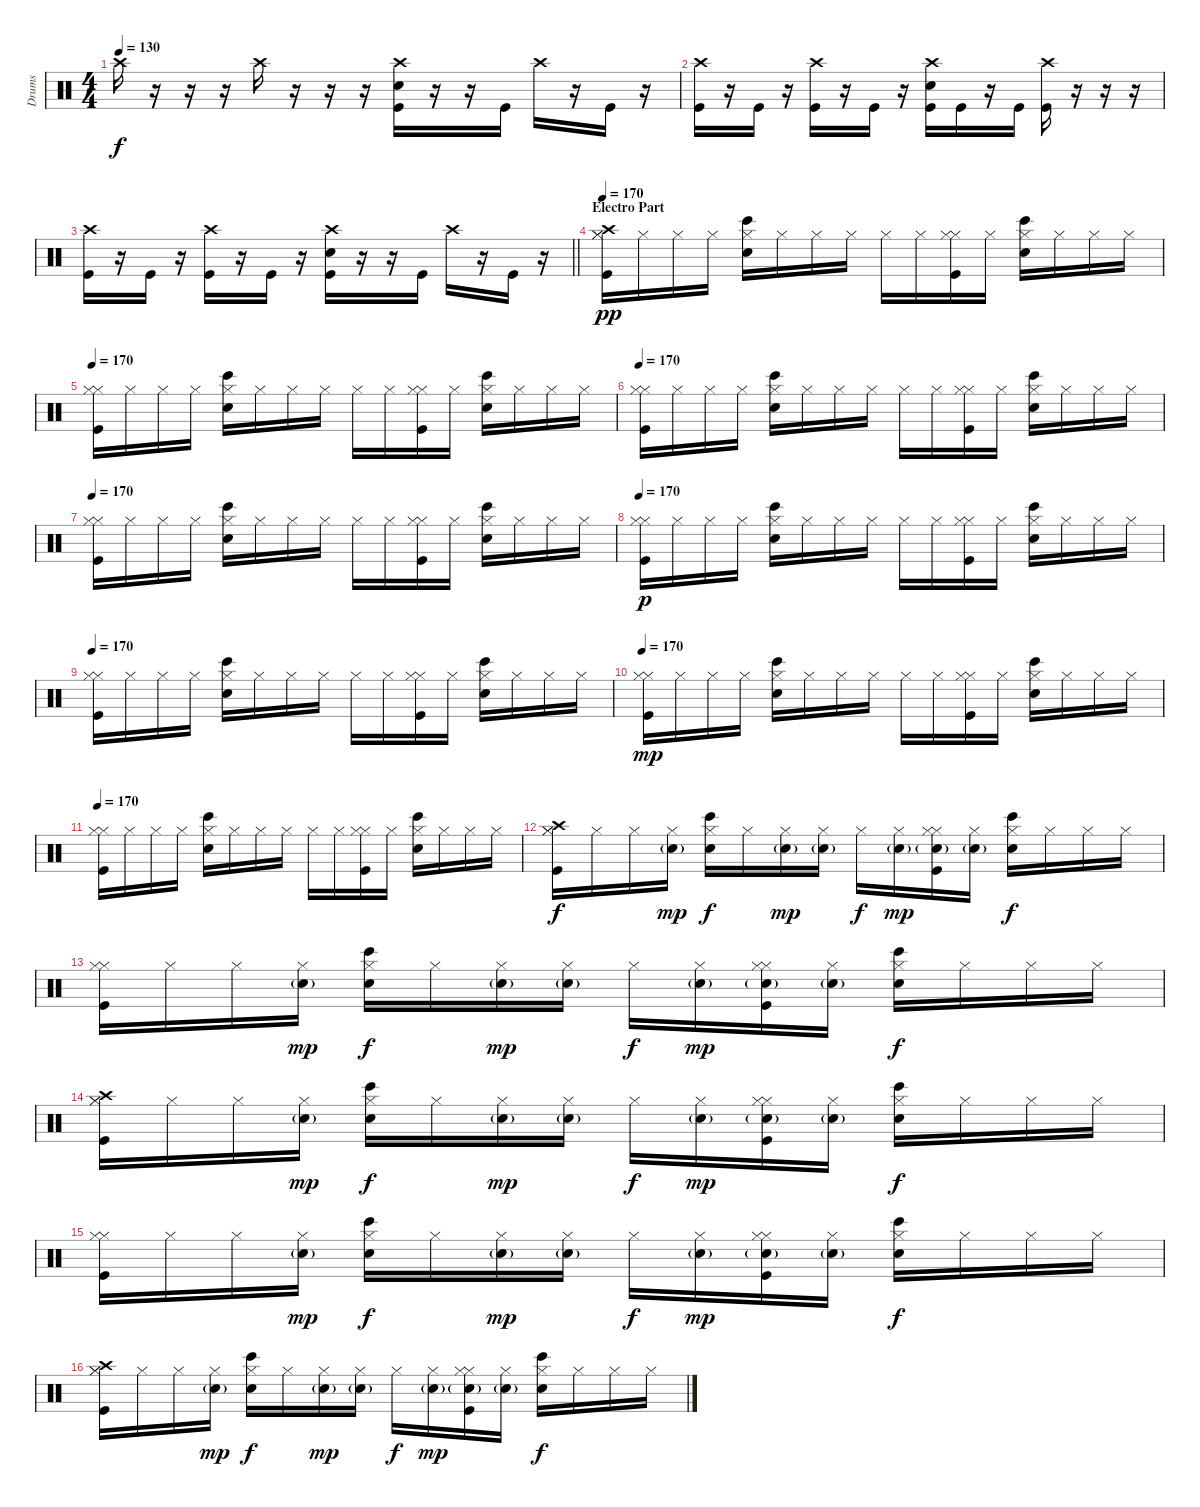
\track ("Drums" "Drums") {instrument percussion}
\staff {score}
\articulation defaults
\ts (4 4)
\tempo 130
\clef neutral
\ks c "Crash high (hit)".16{dy f}
r.16 r.16 r.16 "Crash high (hit)".16 r.16 r.16 r.16 ("Kick (hit)" "Snare (hit) 2" "Crash high (hit)").16 r.16 r.16 "Kick (hit)".16 "Crash high (hit)".16 r.16 "Kick (hit)".16 r.16 |
("Kick (hit)" "Crash high (hit)").16 r.16 "Kick (hit)".16 r.16 ("Kick (hit)" "Crash high (hit)").16 r.16 "Kick (hit)".16 r.16 ("Kick (hit)" "Snare (hit) 2" "Crash high (hit)").16 "Kick (hit)".16 r.16 "Kick (hit)".16 ("Kick (hit)" "Crash high (hit)").16 r.16 r.16 r.16 |
\barLineRight lightlight
("Kick (hit)" "Crash high (hit)").16 r.16 "Kick (hit)".16 r.16 ("Kick (hit)" "Crash high (hit)").16 r.16 "Kick (hit)".16 r.16 ("Kick (hit)" "Snare (hit) 2" "Crash high (hit)").16 r.16 r.16 "Kick (hit)".16 "Crash high (hit)".16 r.16 "Kick (hit)".16 r.16 |
\section ("" "Electro Part")
\tempo 170
("Hi-Hat (closed)" "Kick (hit)" "Hi-Hat (closed)" "Crash high (hit)").16{dy pp} "Hi-Hat (closed)".16 "Hi-Hat (closed)".16 "Hi-Hat (closed)".16 ("Bongo High (hit)" "Snare (hit) 2" "Hi-Hat (closed)").16 "Hi-Hat (closed)".16 "Hi-Hat (closed)".16 "Hi-Hat (closed)".16 "Hi-Hat (closed)".16 "Hi-Hat (closed)".16 ("Kick (hit)" "Hi-Hat (closed)" "Hi-Hat (closed)").16 "Hi-Hat (closed)".16 ("Bongo High (hit)" "Snare (hit) 2" "Hi-Hat (closed)").16 "Hi-Hat (closed)".16 "Hi-Hat (closed)".16 "Hi-Hat (closed)".16 |
\tempo 170
("Hi-Hat (closed)" "Kick (hit)" "Hi-Hat (closed)").16 "Hi-Hat (closed)".16 "Hi-Hat (closed)".16 "Hi-Hat (closed)".16 ("Bongo High (hit)" "Snare (hit) 2" "Hi-Hat (closed)").16 "Hi-Hat (closed)".16 "Hi-Hat (closed)".16 "Hi-Hat (closed)".16 "Hi-Hat (closed)".16 "Hi-Hat (closed)".16 ("Kick (hit)" "Hi-Hat (closed)" "Hi-Hat (closed)").16 "Hi-Hat (closed)".16 ("Bongo High (hit)" "Snare (hit) 2" "Hi-Hat (closed)").16 "Hi-Hat (closed)".16 "Hi-Hat (closed)".16 "Hi-Hat (closed)".16 |
\tempo 170
("Hi-Hat (closed)" "Kick (hit)" "Hi-Hat (closed)").16 "Hi-Hat (closed)".16 "Hi-Hat (closed)".16 "Hi-Hat (closed)".16 ("Bongo High (hit)" "Snare (hit) 2" "Hi-Hat (closed)").16 "Hi-Hat (closed)".16 "Hi-Hat (closed)".16 "Hi-Hat (closed)".16 "Hi-Hat (closed)".16 "Hi-Hat (closed)".16 ("Kick (hit)" "Hi-Hat (closed)" "Hi-Hat (closed)").16 "Hi-Hat (closed)".16 ("Bongo High (hit)" "Snare (hit) 2" "Hi-Hat (closed)").16 "Hi-Hat (closed)".16 "Hi-Hat (closed)".16 "Hi-Hat (closed)".16 |
\tempo 170
("Hi-Hat (closed)" "Kick (hit)" "Hi-Hat (closed)").16 "Hi-Hat (closed)".16 "Hi-Hat (closed)".16 "Hi-Hat (closed)".16 ("Bongo High (hit)" "Snare (hit) 2" "Hi-Hat (closed)").16 "Hi-Hat (closed)".16 "Hi-Hat (closed)".16 "Hi-Hat (closed)".16 "Hi-Hat (closed)".16 "Hi-Hat (closed)".16 ("Kick (hit)" "Hi-Hat (closed)" "Hi-Hat (closed)").16 "Hi-Hat (closed)".16 ("Bongo High (hit)" "Snare (hit) 2" "Hi-Hat (closed)").16 "Hi-Hat (closed)".16 "Hi-Hat (closed)".16 "Hi-Hat (closed)".16 |
\tempo 170
("Hi-Hat (closed)" "Kick (hit)" "Hi-Hat (closed)").16{dy p} "Hi-Hat (closed)".16 "Hi-Hat (closed)".16 "Hi-Hat (closed)".16 ("Bongo High (hit)" "Snare (hit) 2" "Hi-Hat (closed)").16 "Hi-Hat (closed)".16 "Hi-Hat (closed)".16 "Hi-Hat (closed)".16 "Hi-Hat (closed)".16 "Hi-Hat (closed)".16 ("Kick (hit)" "Hi-Hat (closed)" "Hi-Hat (closed)").16 "Hi-Hat (closed)".16 ("Bongo High (hit)" "Snare (hit) 2" "Hi-Hat (closed)").16 "Hi-Hat (closed)".16 "Hi-Hat (closed)".16 "Hi-Hat (closed)".16 |
\tempo 170
("Hi-Hat (closed)" "Kick (hit)" "Hi-Hat (closed)").16 "Hi-Hat (closed)".16 "Hi-Hat (closed)".16 "Hi-Hat (closed)".16 ("Bongo High (hit)" "Snare (hit) 2" "Hi-Hat (closed)").16 "Hi-Hat (closed)".16 "Hi-Hat (closed)".16 "Hi-Hat (closed)".16 "Hi-Hat (closed)".16 "Hi-Hat (closed)".16 ("Kick (hit)" "Hi-Hat (closed)" "Hi-Hat (closed)").16 "Hi-Hat (closed)".16 ("Bongo High (hit)" "Snare (hit) 2" "Hi-Hat (closed)").16 "Hi-Hat (closed)".16 "Hi-Hat (closed)".16 "Hi-Hat (closed)".16 |
\tempo 170
("Hi-Hat (closed)" "Kick (hit)" "Hi-Hat (closed)").16{dy mp} "Hi-Hat (closed)".16 "Hi-Hat (closed)".16 "Hi-Hat (closed)".16 ("Bongo High (hit)" "Snare (hit) 2" "Hi-Hat (closed)").16 "Hi-Hat (closed)".16 "Hi-Hat (closed)".16 "Hi-Hat (closed)".16 "Hi-Hat (closed)".16 "Hi-Hat (closed)".16 ("Kick (hit)" "Hi-Hat (closed)" "Hi-Hat (closed)").16 "Hi-Hat (closed)".16 ("Bongo High (hit)" "Snare (hit) 2" "Hi-Hat (closed)").16 "Hi-Hat (closed)".16 "Hi-Hat (closed)".16 "Hi-Hat (closed)".16 |
\tempo 170
("Hi-Hat (closed)" "Kick (hit)" "Hi-Hat (closed)").16 "Hi-Hat (closed)".16 "Hi-Hat (closed)".16 "Hi-Hat (closed)".16 ("Bongo High (hit)" "Snare (hit) 2" "Hi-Hat (closed)").16 "Hi-Hat (closed)".16 "Hi-Hat (closed)".16 "Hi-Hat (closed)".16 "Hi-Hat (closed)".16 "Hi-Hat (closed)".16 ("Kick (hit)" "Hi-Hat (closed)" "Hi-Hat (closed)").16 "Hi-Hat (closed)".16 ("Bongo High (hit)" "Snare (hit) 2" "Hi-Hat (closed)").16 "Hi-Hat (closed)".16 "Hi-Hat (closed)".16 "Hi-Hat (closed)".16 |
("Kick (hit)" "Hi-Hat (closed)" "Hi-Hat (closed)" "Crash high (hit)").16{dy f} "Hi-Hat (closed)".16 "Hi-Hat (closed)".16 ("Snare (hit) 2"{g} "Hi-Hat (closed)").16{dy mp} ("Bongo High (hit)" "Snare (hit) 2" "Hi-Hat (closed)").16{dy f} "Hi-Hat (closed)".16 ("Snare (hit) 2"{g} "Hi-Hat (closed)").16{dy mp} ("Snare (hit) 2"{g} "Hi-Hat (closed)").16 "Hi-Hat (closed)".16{dy f} ("Snare (hit) 2"{g} "Hi-Hat (closed)").16{dy mp} ("Kick (hit)" "Hi-Hat (closed)" "Snare (hit) 2"{g} "Hi-Hat (closed)").16 ("Snare (hit) 2"{g} "Hi-Hat (closed)").16 ("Bongo High (hit)" "Snare (hit) 2" "Hi-Hat (closed)").16{dy f} "Hi-Hat (closed)".16 "Hi-Hat (closed)".16 "Hi-Hat (closed)".16 |
("Hi-Hat (closed)" "Kick (hit)" "Hi-Hat (closed)").16 "Hi-Hat (closed)".16 "Hi-Hat (closed)".16 ("Snare (hit) 2"{g} "Hi-Hat (closed)").16{dy mp} ("Bongo High (hit)" "Snare (hit) 2" "Hi-Hat (closed)").16{dy f} "Hi-Hat (closed)".16 ("Snare (hit) 2"{g} "Hi-Hat (closed)").16{dy mp} ("Snare (hit) 2"{g} "Hi-Hat (closed)").16 "Hi-Hat (closed)".16{dy f} ("Snare (hit) 2"{g} "Hi-Hat (closed)").16{dy mp} ("Kick (hit)" "Hi-Hat (closed)" "Snare (hit) 2"{g} "Hi-Hat (closed)").16 ("Snare (hit) 2"{g} "Hi-Hat (closed)").16 ("Bongo High (hit)" "Snare (hit) 2" "Hi-Hat (closed)").16{dy f} "Hi-Hat (closed)".16 "Hi-Hat (closed)".16 "Hi-Hat (closed)".16 |
("Kick (hit)" "Hi-Hat (closed)" "Hi-Hat (closed)" "Crash high (hit)").16 "Hi-Hat (closed)".16 "Hi-Hat (closed)".16 ("Snare (hit) 2"{g} "Hi-Hat (closed)").16{dy mp} ("Bongo High (hit)" "Snare (hit) 2" "Hi-Hat (closed)").16{dy f} "Hi-Hat (closed)".16 ("Snare (hit) 2"{g} "Hi-Hat (closed)").16{dy mp} ("Snare (hit) 2"{g} "Hi-Hat (closed)").16 "Hi-Hat (closed)".16{dy f} ("Snare (hit) 2"{g} "Hi-Hat (closed)").16{dy mp} ("Kick (hit)" "Hi-Hat (closed)" "Snare (hit) 2"{g} "Hi-Hat (closed)").16 ("Snare (hit) 2"{g} "Hi-Hat (closed)").16 ("Bongo High (hit)" "Snare (hit) 2" "Hi-Hat (closed)").16{dy f} "Hi-Hat (closed)".16 "Hi-Hat (closed)".16 "Hi-Hat (closed)".16 |
("Hi-Hat (closed)" "Kick (hit)" "Hi-Hat (closed)").16 "Hi-Hat (closed)".16 "Hi-Hat (closed)".16 ("Snare (hit) 2"{g} "Hi-Hat (closed)").16{dy mp} ("Bongo High (hit)" "Snare (hit) 2" "Hi-Hat (closed)").16{dy f} "Hi-Hat (closed)".16 ("Snare (hit) 2"{g} "Hi-Hat (closed)").16{dy mp} ("Snare (hit) 2"{g} "Hi-Hat (closed)").16 "Hi-Hat (closed)".16{dy f} ("Snare (hit) 2"{g} "Hi-Hat (closed)").16{dy mp} ("Kick (hit)" "Hi-Hat (closed)" "Snare (hit) 2"{g} "Hi-Hat (closed)").16 ("Snare (hit) 2"{g} "Hi-Hat (closed)").16 ("Bongo High (hit)" "Snare (hit) 2" "Hi-Hat (closed)").16{dy f} "Hi-Hat (closed)".16 "Hi-Hat (closed)".16 "Hi-Hat (closed)".16 |
("Kick (hit)" "Hi-Hat (closed)" "Hi-Hat (closed)" "Crash high (hit)").16 "Hi-Hat (closed)".16 "Hi-Hat (closed)".16 ("Snare (hit) 2"{g} "Hi-Hat (closed)").16{dy mp} ("Bongo High (hit)" "Snare (hit) 2" "Hi-Hat (closed)").16{dy f} "Hi-Hat (closed)".16 ("Snare (hit) 2"{g} "Hi-Hat (closed)").16{dy mp} ("Snare (hit) 2"{g} "Hi-Hat (closed)").16 "Hi-Hat (closed)".16{dy f} ("Snare (hit) 2"{g} "Hi-Hat (closed)").16{dy mp} ("Kick (hit)" "Hi-Hat (closed)" "Snare (hit) 2"{g} "Hi-Hat (closed)").16 ("Snare (hit) 2"{g} "Hi-Hat (closed)").16 ("Bongo High (hit)" "Snare (hit) 2" "Hi-Hat (closed)").16{dy f} "Hi-Hat (closed)".16 "Hi-Hat (closed)".16 "Hi-Hat (closed)".16
